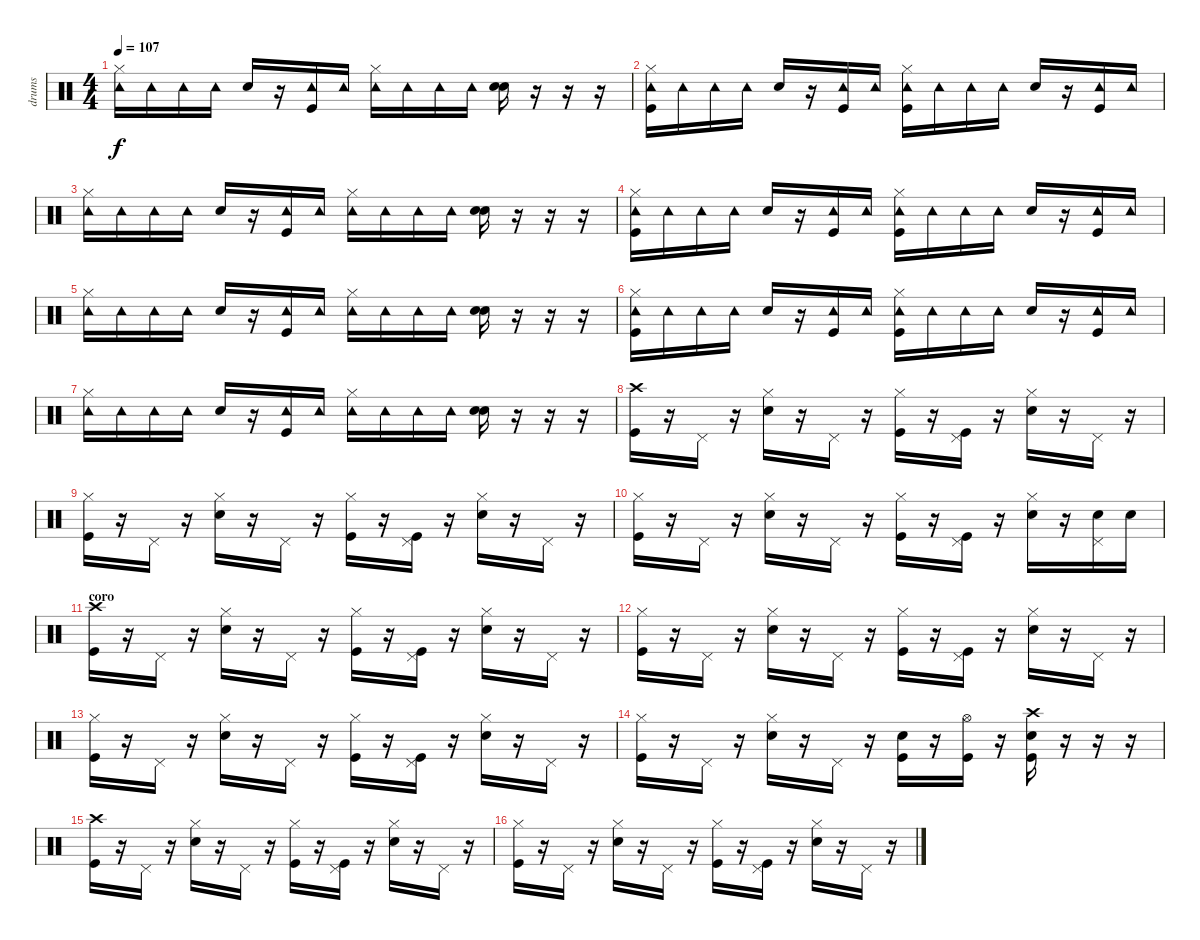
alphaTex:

\track ("drums" "drums") {instrument percussion}
\staff {score}
\articulation defaults
\ts (4 4)
\tempo 107
\clef neutral
\ks c
("Hi-Hat (closed)" "Tambourine (hit)").16{dy f} "Tambourine (hit)".16 "Tambourine (hit)".16 "Tambourine (hit)".16 "Snare (hit) 2".16 r.16 ("Tambourine (hit)" "Kick (hit)").16 "Tambourine (hit)".16 ("Hi-Hat (closed)" "Tambourine (hit)").16 "Tambourine (hit)".16 "Tambourine (hit)".16 "Tambourine (hit)".16 ("Snare (hit) 2" "Electric Snare (hit)").16 r.16 r.16 r.16 |
("Hi-Hat (closed)" "Tambourine (hit)" "Kick (hit)").16 "Tambourine (hit)".16 "Tambourine (hit)".16 "Tambourine (hit)".16 "Snare (hit) 2".16 r.16 ("Tambourine (hit)" "Kick (hit)").16 "Tambourine (hit)".16 ("Hi-Hat (closed)" "Tambourine (hit)" "Kick (hit)").16 "Tambourine (hit)".16 "Tambourine (hit)".16 "Tambourine (hit)".16 "Snare (hit) 2".16 r.16 ("Tambourine (hit)" "Kick (hit)").16 "Tambourine (hit)".16 |
("Hi-Hat (closed)" "Tambourine (hit)").16 "Tambourine (hit)".16 "Tambourine (hit)".16 "Tambourine (hit)".16 "Snare (hit) 2".16 r.16 ("Tambourine (hit)" "Kick (hit)").16 "Tambourine (hit)".16 ("Hi-Hat (closed)" "Tambourine (hit)").16 "Tambourine (hit)".16 "Tambourine (hit)".16 "Tambourine (hit)".16 ("Snare (hit) 2" "Electric Snare (hit)").16 r.16 r.16 r.16 |
("Hi-Hat (closed)" "Tambourine (hit)" "Kick (hit)").16 "Tambourine (hit)".16 "Tambourine (hit)".16 "Tambourine (hit)".16 "Snare (hit) 2".16 r.16 ("Tambourine (hit)" "Kick (hit)").16 "Tambourine (hit)".16 ("Hi-Hat (closed)" "Tambourine (hit)" "Kick (hit)").16 "Tambourine (hit)".16 "Tambourine (hit)".16 "Tambourine (hit)".16 "Snare (hit) 2".16 r.16 ("Tambourine (hit)" "Kick (hit)").16 "Tambourine (hit)".16 |
("Hi-Hat (closed)" "Tambourine (hit)").16 "Tambourine (hit)".16 "Tambourine (hit)".16 "Tambourine (hit)".16 "Snare (hit) 2".16 r.16 ("Tambourine (hit)" "Kick (hit)").16 "Tambourine (hit)".16 ("Hi-Hat (closed)" "Tambourine (hit)").16 "Tambourine (hit)".16 "Tambourine (hit)".16 "Tambourine (hit)".16 ("Snare (hit) 2" "Electric Snare (hit)").16 r.16 r.16 r.16 |
("Hi-Hat (closed)" "Tambourine (hit)" "Kick (hit)").16 "Tambourine (hit)".16 "Tambourine (hit)".16 "Tambourine (hit)".16 "Snare (hit) 2".16 r.16 ("Tambourine (hit)" "Kick (hit)").16 "Tambourine (hit)".16 ("Hi-Hat (closed)" "Tambourine (hit)" "Kick (hit)").16 "Tambourine (hit)".16 "Tambourine (hit)".16 "Tambourine (hit)".16 "Snare (hit) 2".16 r.16 ("Tambourine (hit)" "Kick (hit)").16 "Tambourine (hit)".16 |
("Hi-Hat (closed)" "Tambourine (hit)").16 "Tambourine (hit)".16 "Tambourine (hit)".16 "Tambourine (hit)".16 "Snare (hit) 2".16 r.16 ("Tambourine (hit)" "Kick (hit)").16 "Tambourine (hit)".16 ("Hi-Hat (closed)" "Tambourine (hit)").16 "Tambourine (hit)".16 "Tambourine (hit)".16 "Tambourine (hit)".16 ("Snare (hit) 2" "Electric Snare (hit)").16 r.16 r.16 r.16 |
("Crash high (hit)" "Kick (hit)").16 r.16 "Pedal Hi-Hat (hit)".16 r.16 ("Hi-Hat (closed)" "Snare (hit) 2").16 r.16 "Pedal Hi-Hat (hit)".16 r.16 ("Hi-Hat (closed)" "Kick (hit)").16 r.16 ("Pedal Hi-Hat (hit)" "Kick (hit)").16 r.16 ("Hi-Hat (closed)" "Snare (hit) 2").16 r.16 "Pedal Hi-Hat (hit)".16 r.16 |
("Hi-Hat (closed)" "Kick (hit)").16 r.16 "Pedal Hi-Hat (hit)".16 r.16 ("Hi-Hat (closed)" "Snare (hit) 2").16 r.16 "Pedal Hi-Hat (hit)".16 r.16 ("Hi-Hat (closed)" "Kick (hit)").16 r.16 ("Pedal Hi-Hat (hit)" "Kick (hit)").16 r.16 ("Hi-Hat (closed)" "Snare (hit) 2").16 r.16 "Pedal Hi-Hat (hit)".16 r.16 |
("Hi-Hat (closed)" "Kick (hit)").16 r.16 "Pedal Hi-Hat (hit)".16 r.16 ("Hi-Hat (closed)" "Snare (hit) 2").16 r.16 "Pedal Hi-Hat (hit)".16 r.16 ("Hi-Hat (closed)" "Kick (hit)").16 r.16 ("Pedal Hi-Hat (hit)" "Kick (hit)").16 r.16 ("Hi-Hat (closed)" "Snare (hit) 2").16 r.16 ("Pedal Hi-Hat (hit)" "Snare (hit) 2").16 "Snare (hit) 2".16 |
\section ("" "coro")
("Crash high (hit)" "Kick (hit)").16 r.16 "Pedal Hi-Hat (hit)".16 r.16 ("Hi-Hat (closed)" "Snare (hit) 2").16 r.16 "Pedal Hi-Hat (hit)".16 r.16 ("Hi-Hat (closed)" "Kick (hit)").16 r.16 ("Pedal Hi-Hat (hit)" "Kick (hit)").16 r.16 ("Hi-Hat (closed)" "Snare (hit) 2").16 r.16 "Pedal Hi-Hat (hit)".16 r.16 |
("Hi-Hat (closed)" "Kick (hit)").16 r.16 "Pedal Hi-Hat (hit)".16 r.16 ("Hi-Hat (closed)" "Snare (hit) 2").16 r.16 "Pedal Hi-Hat (hit)".16 r.16 ("Hi-Hat (closed)" "Kick (hit)").16 r.16 ("Pedal Hi-Hat (hit)" "Kick (hit)").16 r.16 ("Hi-Hat (closed)" "Snare (hit) 2").16 r.16 "Pedal Hi-Hat (hit)".16 r.16 |
("Hi-Hat (closed)" "Kick (hit)").16 r.16 "Pedal Hi-Hat (hit)".16 r.16 ("Hi-Hat (closed)" "Snare (hit) 2").16 r.16 "Pedal Hi-Hat (hit)".16 r.16 ("Hi-Hat (closed)" "Kick (hit)").16 r.16 ("Pedal Hi-Hat (hit)" "Kick (hit)").16 r.16 ("Hi-Hat (closed)" "Snare (hit) 2").16 r.16 "Pedal Hi-Hat (hit)".16 r.16 |
("Hi-Hat (closed)" "Kick (hit)").16 r.16 "Pedal Hi-Hat (hit)".16 r.16 ("Hi-Hat (closed)" "Snare (hit) 2").16 r.16 "Pedal Hi-Hat (hit)".16 r.16 ("Snare (hit) 2" "Kick (hit)").16 r.16 ("Hi-Hat (open)" "Kick (hit)").16 r.16 ("Crash high (hit)" "Snare (hit) 2" "Kick (hit)").16 r.16 r.16 r.16 |
("Crash high (hit)" "Kick (hit)").16 r.16 "Pedal Hi-Hat (hit)".16 r.16 ("Hi-Hat (closed)" "Snare (hit) 2").16 r.16 "Pedal Hi-Hat (hit)".16 r.16 ("Hi-Hat (closed)" "Kick (hit)").16 r.16 ("Pedal Hi-Hat (hit)" "Kick (hit)").16 r.16 ("Hi-Hat (closed)" "Snare (hit) 2").16 r.16 "Pedal Hi-Hat (hit)".16 r.16 |
("Hi-Hat (closed)" "Kick (hit)").16 r.16 "Pedal Hi-Hat (hit)".16 r.16 ("Hi-Hat (closed)" "Snare (hit) 2").16 r.16 "Pedal Hi-Hat (hit)".16 r.16 ("Hi-Hat (closed)" "Kick (hit)").16 r.16 ("Pedal Hi-Hat (hit)" "Kick (hit)").16 r.16 ("Hi-Hat (closed)" "Snare (hit) 2").16 r.16 "Pedal Hi-Hat (hit)".16 r.16
